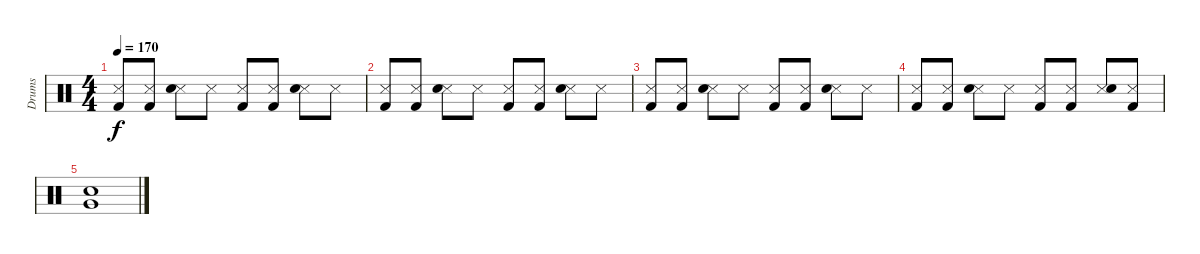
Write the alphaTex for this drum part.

\track ("Drums" "Drums") {instrument percussion}
\staff {score}
\articulation defaults
\ts (4 4)
\tempo 170
\clef neutral
\ks c
("Metronome (hit)" "Kick (hit) 2").8{dy f} ("Metronome (hit)" "Kick (hit) 2").8 ("Metronome (hit)" "Electric Snare (hit)").8 "Metronome (hit)".8 ("Metronome (hit)" "Kick (hit) 2").8 ("Metronome (hit)" "Kick (hit) 2").8 ("Metronome (hit)" "Electric Snare (hit)").8 "Metronome (hit)".8 |
("Metronome (hit)" "Kick (hit) 2").8 ("Metronome (hit)" "Kick (hit) 2").8 ("Metronome (hit)" "Electric Snare (hit)").8 "Metronome (hit)".8 ("Metronome (hit)" "Kick (hit) 2").8 ("Metronome (hit)" "Kick (hit) 2").8 ("Metronome (hit)" "Electric Snare (hit)").8 "Metronome (hit)".8 |
("Metronome (hit)" "Kick (hit) 2").8 ("Metronome (hit)" "Kick (hit) 2").8 ("Metronome (hit)" "Electric Snare (hit)").8 "Metronome (hit)".8 ("Metronome (hit)" "Kick (hit) 2").8 ("Metronome (hit)" "Kick (hit) 2").8 ("Metronome (hit)" "Electric Snare (hit)").8 "Metronome (hit)".8 |
("Metronome (hit)" "Kick (hit) 2").8 ("Metronome (hit)" "Kick (hit) 2").8 ("Metronome (hit)" "Electric Snare (hit)").8 "Metronome (hit)".8 ("Metronome (hit)" "Kick (hit) 2").8 ("Metronome (hit)" "Kick (hit) 2").8 ("Metronome (hit)" "Electric Snare (hit)").8 ("Metronome (hit)" "Kick (hit) 2").8 |
("Very Low Tom (hit)" "Electric Snare (hit)").1
